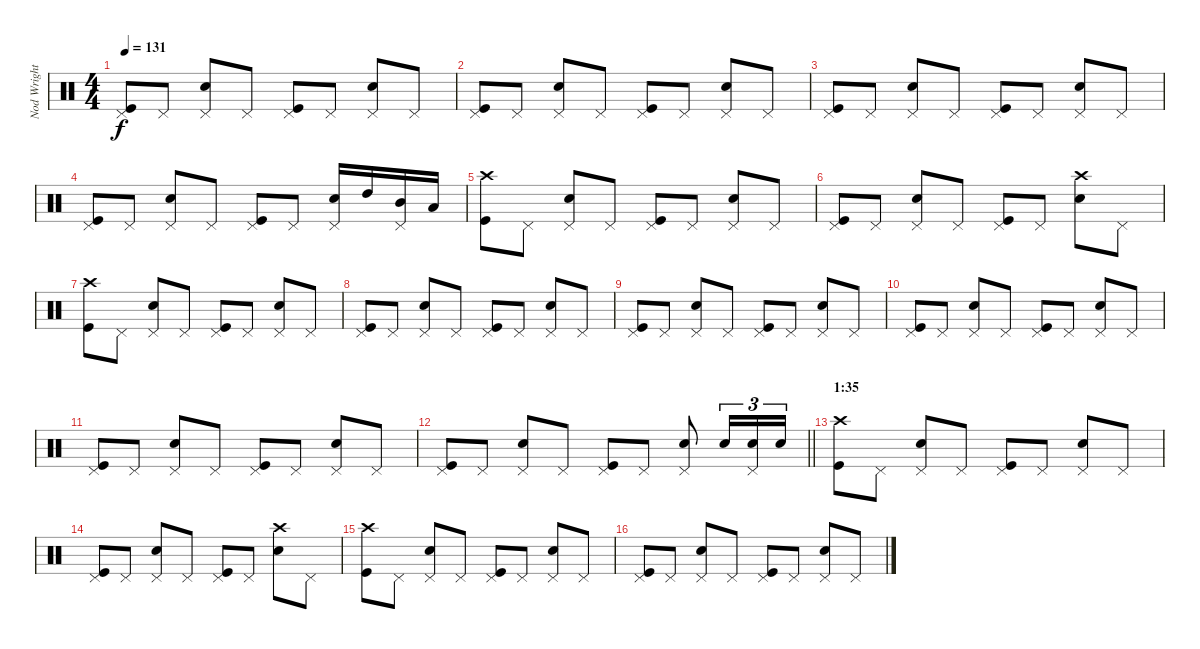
\track ("Nod Wright" "Nod Wright") {instrument percussion}
\staff {score}
\articulation defaults
\ts (4 4)
\tempo 131
\clef neutral
\ks c
("Pedal Hi-Hat (hit)" "Kick (hit)").8{dy f} "Pedal Hi-Hat (hit)".8 ("Pedal Hi-Hat (hit)" "Snare (hit) 2").8 "Pedal Hi-Hat (hit)".8 ("Pedal Hi-Hat (hit)" "Kick (hit)").8 "Pedal Hi-Hat (hit)".8 ("Pedal Hi-Hat (hit)" "Snare (hit) 2").8 "Pedal Hi-Hat (hit)".8 |
("Pedal Hi-Hat (hit)" "Kick (hit)").8 "Pedal Hi-Hat (hit)".8 ("Pedal Hi-Hat (hit)" "Snare (hit) 2").8 "Pedal Hi-Hat (hit)".8 ("Pedal Hi-Hat (hit)" "Kick (hit)").8 "Pedal Hi-Hat (hit)".8 ("Pedal Hi-Hat (hit)" "Snare (hit) 2").8 "Pedal Hi-Hat (hit)".8 |
("Pedal Hi-Hat (hit)" "Kick (hit)").8 "Pedal Hi-Hat (hit)".8 ("Pedal Hi-Hat (hit)" "Snare (hit) 2").8 "Pedal Hi-Hat (hit)".8 ("Pedal Hi-Hat (hit)" "Kick (hit)").8 "Pedal Hi-Hat (hit)".8 ("Pedal Hi-Hat (hit)" "Snare (hit) 2").8 "Pedal Hi-Hat (hit)".8 |
("Pedal Hi-Hat (hit)" "Kick (hit)").8 "Pedal Hi-Hat (hit)".8 ("Pedal Hi-Hat (hit)" "Snare (hit) 2").8 "Pedal Hi-Hat (hit)".8 ("Pedal Hi-Hat (hit)" "Kick (hit)").8 "Pedal Hi-Hat (hit)".8 ("Pedal Hi-Hat (hit)" "Snare (hit) 2").16 "High Tom (hit)".16 ("Pedal Hi-Hat (hit)" "Mid Tom (hit)").16 "Low Tom (hit)".16 |
("Crash high (hit)" "Kick (hit)").8 "Pedal Hi-Hat (hit)".8 ("Pedal Hi-Hat (hit)" "Snare (hit) 2").8 "Pedal Hi-Hat (hit)".8 ("Pedal Hi-Hat (hit)" "Kick (hit)").8 "Pedal Hi-Hat (hit)".8 ("Pedal Hi-Hat (hit)" "Snare (hit) 2").8 "Pedal Hi-Hat (hit)".8 |
("Pedal Hi-Hat (hit)" "Kick (hit)").8 "Pedal Hi-Hat (hit)".8 ("Pedal Hi-Hat (hit)" "Snare (hit) 2").8 "Pedal Hi-Hat (hit)".8 ("Pedal Hi-Hat (hit)" "Kick (hit)").8 "Pedal Hi-Hat (hit)".8 ("Crash high (hit)" "Snare (hit) 2").8 "Pedal Hi-Hat (hit)".8 |
("Crash high (hit)" "Kick (hit)").8 "Pedal Hi-Hat (hit)".8 ("Pedal Hi-Hat (hit)" "Snare (hit) 2").8 "Pedal Hi-Hat (hit)".8 ("Pedal Hi-Hat (hit)" "Kick (hit)").8 "Pedal Hi-Hat (hit)".8 ("Pedal Hi-Hat (hit)" "Snare (hit) 2").8 "Pedal Hi-Hat (hit)".8 |
("Pedal Hi-Hat (hit)" "Kick (hit)").8 "Pedal Hi-Hat (hit)".8 ("Pedal Hi-Hat (hit)" "Snare (hit) 2").8 "Pedal Hi-Hat (hit)".8 ("Pedal Hi-Hat (hit)" "Kick (hit)").8 "Pedal Hi-Hat (hit)".8 ("Pedal Hi-Hat (hit)" "Snare (hit) 2").8 "Pedal Hi-Hat (hit)".8 |
("Pedal Hi-Hat (hit)" "Kick (hit)").8 "Pedal Hi-Hat (hit)".8 ("Pedal Hi-Hat (hit)" "Snare (hit) 2").8 "Pedal Hi-Hat (hit)".8 ("Pedal Hi-Hat (hit)" "Kick (hit)").8 "Pedal Hi-Hat (hit)".8 ("Pedal Hi-Hat (hit)" "Snare (hit) 2").8 "Pedal Hi-Hat (hit)".8 |
("Pedal Hi-Hat (hit)" "Kick (hit)").8 "Pedal Hi-Hat (hit)".8 ("Pedal Hi-Hat (hit)" "Snare (hit) 2").8 "Pedal Hi-Hat (hit)".8 ("Pedal Hi-Hat (hit)" "Kick (hit)").8 "Pedal Hi-Hat (hit)".8 ("Pedal Hi-Hat (hit)" "Snare (hit) 2").8 "Pedal Hi-Hat (hit)".8 |
("Pedal Hi-Hat (hit)" "Kick (hit)").8 "Pedal Hi-Hat (hit)".8 ("Pedal Hi-Hat (hit)" "Snare (hit) 2").8 "Pedal Hi-Hat (hit)".8 ("Pedal Hi-Hat (hit)" "Kick (hit)").8 "Pedal Hi-Hat (hit)".8 ("Pedal Hi-Hat (hit)" "Snare (hit) 2").8 "Pedal Hi-Hat (hit)".8 |
\barLineRight lightlight
("Pedal Hi-Hat (hit)" "Kick (hit)").8 "Pedal Hi-Hat (hit)".8 ("Pedal Hi-Hat (hit)" "Snare (hit) 2").8 "Pedal Hi-Hat (hit)".8 ("Pedal Hi-Hat (hit)" "Kick (hit)").8 "Pedal Hi-Hat (hit)".8 ("Pedal Hi-Hat (hit)" "Snare (hit) 2").8 "Snare (hit) 2".16{tu (3 2)} ("Pedal Hi-Hat (hit)" "Snare (hit) 2").16{tu (3 2)} "Snare (hit) 2".16{tu (3 2)} |
\section ("" "1:35")
("Crash high (hit)" "Kick (hit)").8 "Pedal Hi-Hat (hit)".8 ("Pedal Hi-Hat (hit)" "Snare (hit) 2").8 "Pedal Hi-Hat (hit)".8 ("Pedal Hi-Hat (hit)" "Kick (hit)").8 "Pedal Hi-Hat (hit)".8 ("Pedal Hi-Hat (hit)" "Snare (hit) 2").8 "Pedal Hi-Hat (hit)".8 |
("Pedal Hi-Hat (hit)" "Kick (hit)").8 "Pedal Hi-Hat (hit)".8 ("Pedal Hi-Hat (hit)" "Snare (hit) 2").8 "Pedal Hi-Hat (hit)".8 ("Pedal Hi-Hat (hit)" "Kick (hit)").8 "Pedal Hi-Hat (hit)".8 ("Crash high (hit)" "Snare (hit) 2").8 "Pedal Hi-Hat (hit)".8 |
("Crash high (hit)" "Kick (hit)").8 "Pedal Hi-Hat (hit)".8 ("Pedal Hi-Hat (hit)" "Snare (hit) 2").8 "Pedal Hi-Hat (hit)".8 ("Pedal Hi-Hat (hit)" "Kick (hit)").8 "Pedal Hi-Hat (hit)".8 ("Pedal Hi-Hat (hit)" "Snare (hit) 2").8 "Pedal Hi-Hat (hit)".8 |
("Pedal Hi-Hat (hit)" "Kick (hit)").8 "Pedal Hi-Hat (hit)".8 ("Pedal Hi-Hat (hit)" "Snare (hit) 2").8 "Pedal Hi-Hat (hit)".8 ("Pedal Hi-Hat (hit)" "Kick (hit)").8 "Pedal Hi-Hat (hit)".8 ("Pedal Hi-Hat (hit)" "Snare (hit) 2").8 "Pedal Hi-Hat (hit)".8
